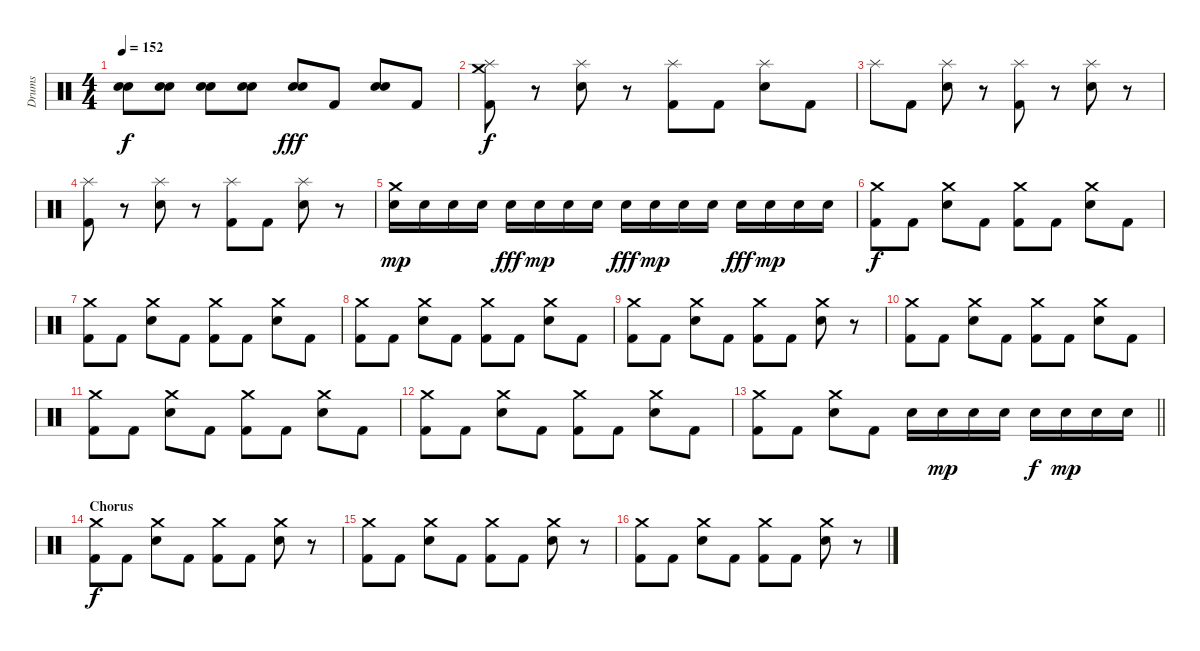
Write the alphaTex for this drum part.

\track ("Drums" "Drums") {instrument percussion}
\staff {score}
\articulation defaults
\ts (4 4)
\tempo 152
\clef neutral
\ks c
("Electric Snare (hit)" "Electric Snare (hit)").8{dy f} ("Electric Snare (hit)" "Electric Snare (hit)").8 ("Electric Snare (hit)" "Electric Snare (hit)").8 ("Electric Snare (hit)" "Electric Snare (hit)").8 ("Electric Snare (hit)" "Electric Snare (hit)").8{dy fff} "Kick (hit) 2".8 ("Electric Snare (hit)" "Electric Snare (hit)").8 "Kick (hit) 2".8 |
("Splash (hit)" "Crash medium (hit)" "Kick (hit) 2").8{dy f} r.8 ("Splash (hit)" "Electric Snare (hit)").8 r.8 ("Splash (hit)" "Kick (hit) 2").8 "Kick (hit) 2".8 ("Splash (hit)" "Electric Snare (hit)").8 "Kick (hit) 2".8 |
"Splash (hit)".8 "Kick (hit) 2".8 ("Splash (hit)" "Electric Snare (hit)").8 r.8 ("Splash (hit)" "Kick (hit) 2").8 r.8 ("Splash (hit)" "Electric Snare (hit)").8 r.8 |
("Splash (hit)" "Kick (hit) 2").8 r.8 ("Splash (hit)" "Electric Snare (hit)").8 r.8 ("Splash (hit)" "Kick (hit) 2").8 "Kick (hit) 2".8 ("Splash (hit)" "Electric Snare (hit)").8 r.8 |
("Crash medium (hit)" "Electric Snare (hit)").16{dy mp} "Electric Snare (hit)".16 "Electric Snare (hit)".16 "Electric Snare (hit)".16 "Electric Snare (hit)".16{dy fff} "Electric Snare (hit)".16{dy mp} "Electric Snare (hit)".16 "Electric Snare (hit)".16 "Electric Snare (hit)".16{dy fff} "Electric Snare (hit)".16{dy mp} "Electric Snare (hit)".16 "Electric Snare (hit)".16 "Electric Snare (hit)".16{dy fff} "Electric Snare (hit)".16{dy mp} "Electric Snare (hit)".16 "Electric Snare (hit)".16 |
("Crash medium (hit)" "Kick (hit) 2").8{dy f} "Kick (hit) 2".8 ("Crash medium (hit)" "Electric Snare (hit)").8 "Kick (hit) 2".8 ("Crash medium (hit)" "Kick (hit) 2").8 "Kick (hit) 2".8 ("Crash medium (hit)" "Electric Snare (hit)").8 "Kick (hit) 2".8 |
("Crash medium (hit)" "Kick (hit) 2").8 "Kick (hit) 2".8 ("Crash medium (hit)" "Electric Snare (hit)").8 "Kick (hit) 2".8 ("Crash medium (hit)" "Kick (hit) 2").8 "Kick (hit) 2".8 ("Crash medium (hit)" "Electric Snare (hit)").8 "Kick (hit) 2".8 |
("Crash medium (hit)" "Kick (hit) 2").8 "Kick (hit) 2".8 ("Crash medium (hit)" "Electric Snare (hit)").8 "Kick (hit) 2".8 ("Crash medium (hit)" "Kick (hit) 2").8 "Kick (hit) 2".8 ("Crash medium (hit)" "Electric Snare (hit)").8 "Kick (hit) 2".8 |
("Crash medium (hit)" "Kick (hit) 2").8 "Kick (hit) 2".8 ("Crash medium (hit)" "Electric Snare (hit)").8 "Kick (hit) 2".8 ("Crash medium (hit)" "Kick (hit) 2").8 "Kick (hit) 2".8 ("Crash medium (hit)" "Electric Snare (hit)").8 r.8 |
("Crash medium (hit)" "Kick (hit) 2").8 "Kick (hit) 2".8 ("Crash medium (hit)" "Electric Snare (hit)").8 "Kick (hit) 2".8 ("Crash medium (hit)" "Kick (hit) 2").8 "Kick (hit) 2".8 ("Crash medium (hit)" "Electric Snare (hit)").8 "Kick (hit) 2".8 |
("Crash medium (hit)" "Kick (hit) 2").8 "Kick (hit) 2".8 ("Crash medium (hit)" "Electric Snare (hit)").8 "Kick (hit) 2".8 ("Crash medium (hit)" "Kick (hit) 2").8 "Kick (hit) 2".8 ("Crash medium (hit)" "Electric Snare (hit)").8 "Kick (hit) 2".8 |
("Crash medium (hit)" "Kick (hit) 2").8 "Kick (hit) 2".8 ("Crash medium (hit)" "Electric Snare (hit)").8 "Kick (hit) 2".8 ("Crash medium (hit)" "Kick (hit) 2").8 "Kick (hit) 2".8 ("Crash medium (hit)" "Electric Snare (hit)").8 "Kick (hit) 2".8 |
\barLineRight lightlight
("Crash medium (hit)" "Kick (hit) 2").8 "Kick (hit) 2".8 ("Crash medium (hit)" "Electric Snare (hit)").8 "Kick (hit) 2".8 "Electric Snare (hit)".16 "Electric Snare (hit)".16{dy mp} "Electric Snare (hit)".16 "Electric Snare (hit)".16 "Electric Snare (hit)".16{dy f} "Electric Snare (hit)".16{dy mp} "Electric Snare (hit)".16 "Electric Snare (hit)".16 |
\section ("" "Chorus")
("Crash medium (hit)" "Kick (hit) 2").8{dy f} "Kick (hit) 2".8 ("Crash medium (hit)" "Electric Snare (hit)").8 "Kick (hit) 2".8 ("Crash medium (hit)" "Kick (hit) 2").8 "Kick (hit) 2".8 ("Crash medium (hit)" "Electric Snare (hit)").8 r.8 |
("Crash medium (hit)" "Kick (hit) 2").8 "Kick (hit) 2".8 ("Crash medium (hit)" "Electric Snare (hit)").8 "Kick (hit) 2".8 ("Crash medium (hit)" "Kick (hit) 2").8 "Kick (hit) 2".8 ("Crash medium (hit)" "Electric Snare (hit)").8 r.8 |
("Crash medium (hit)" "Kick (hit) 2").8 "Kick (hit) 2".8 ("Crash medium (hit)" "Electric Snare (hit)").8 "Kick (hit) 2".8 ("Crash medium (hit)" "Kick (hit) 2").8 "Kick (hit) 2".8 ("Crash medium (hit)" "Electric Snare (hit)").8 r.8
